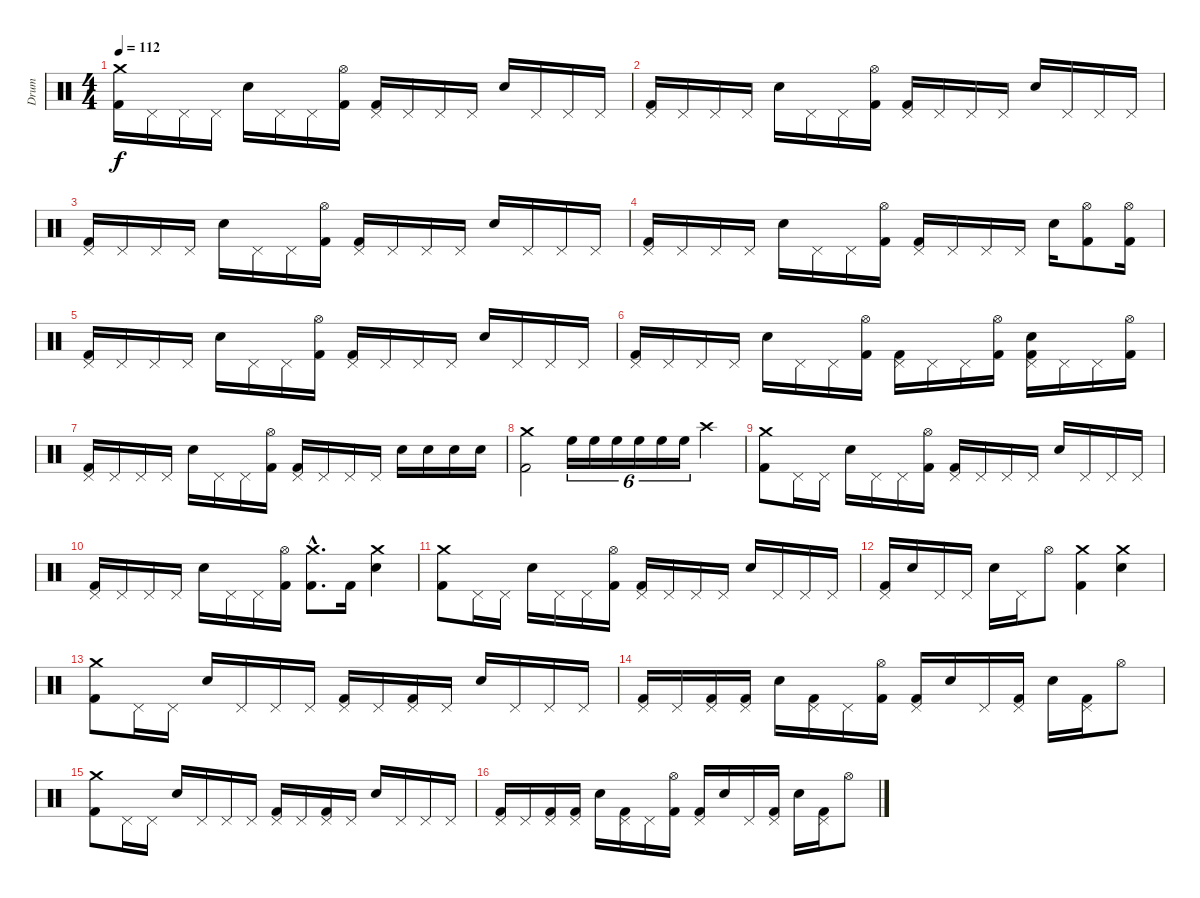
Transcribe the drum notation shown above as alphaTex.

\track ("Drum" "Drum") {instrument percussion}
\staff {score}
\articulation defaults
\ts (4 4)
\tempo 112
\clef neutral
\ks c
("Crash medium (hit)" "Kick (hit) 2").16{dy f} "Pedal Hi-Hat (hit)".16 "Pedal Hi-Hat (hit)".16 "Pedal Hi-Hat (hit)".16 "Electric Snare (hit)".16 "Pedal Hi-Hat (hit)".16 "Pedal Hi-Hat (hit)".16 ("Hi-Hat (open)" "Kick (hit) 2").16 ("Pedal Hi-Hat (hit)" "Kick (hit) 2").16 "Pedal Hi-Hat (hit)".16 "Pedal Hi-Hat (hit)".16 "Pedal Hi-Hat (hit)".16 "Electric Snare (hit)".16 "Pedal Hi-Hat (hit)".16 "Pedal Hi-Hat (hit)".16 "Pedal Hi-Hat (hit)".16 |
("Pedal Hi-Hat (hit)" "Kick (hit) 2").16 "Pedal Hi-Hat (hit)".16 "Pedal Hi-Hat (hit)".16 "Pedal Hi-Hat (hit)".16 "Electric Snare (hit)".16 "Pedal Hi-Hat (hit)".16 "Pedal Hi-Hat (hit)".16 ("Hi-Hat (open)" "Kick (hit) 2").16 ("Pedal Hi-Hat (hit)" "Kick (hit) 2").16 "Pedal Hi-Hat (hit)".16 "Pedal Hi-Hat (hit)".16 "Pedal Hi-Hat (hit)".16 "Electric Snare (hit)".16 "Pedal Hi-Hat (hit)".16 "Pedal Hi-Hat (hit)".16 "Pedal Hi-Hat (hit)".16 |
("Pedal Hi-Hat (hit)" "Kick (hit) 2").16 "Pedal Hi-Hat (hit)".16 "Pedal Hi-Hat (hit)".16 "Pedal Hi-Hat (hit)".16 "Electric Snare (hit)".16 "Pedal Hi-Hat (hit)".16 "Pedal Hi-Hat (hit)".16 ("Hi-Hat (open)" "Kick (hit) 2").16 ("Pedal Hi-Hat (hit)" "Kick (hit) 2").16 "Pedal Hi-Hat (hit)".16 "Pedal Hi-Hat (hit)".16 "Pedal Hi-Hat (hit)".16 "Electric Snare (hit)".16 "Pedal Hi-Hat (hit)".16 "Pedal Hi-Hat (hit)".16 "Pedal Hi-Hat (hit)".16 |
("Pedal Hi-Hat (hit)" "Kick (hit) 2").16 "Pedal Hi-Hat (hit)".16 "Pedal Hi-Hat (hit)".16 "Pedal Hi-Hat (hit)".16 "Electric Snare (hit)".16 "Pedal Hi-Hat (hit)".16 "Pedal Hi-Hat (hit)".16 ("Hi-Hat (open)" "Kick (hit) 2").16 ("Pedal Hi-Hat (hit)" "Kick (hit) 2").16 "Pedal Hi-Hat (hit)".16 "Pedal Hi-Hat (hit)".16 "Pedal Hi-Hat (hit)".16 "Electric Snare (hit)".16 ("Hi-Hat (open)" "Kick (hit) 2").8 ("Hi-Hat (open)" "Kick (hit) 2").16 |
("Pedal Hi-Hat (hit)" "Kick (hit) 2").16 "Pedal Hi-Hat (hit)".16 "Pedal Hi-Hat (hit)".16 "Pedal Hi-Hat (hit)".16 "Electric Snare (hit)".16 "Pedal Hi-Hat (hit)".16 "Pedal Hi-Hat (hit)".16 ("Hi-Hat (open)" "Kick (hit) 2").16 ("Pedal Hi-Hat (hit)" "Kick (hit) 2").16 "Pedal Hi-Hat (hit)".16 "Pedal Hi-Hat (hit)".16 "Pedal Hi-Hat (hit)".16 "Electric Snare (hit)".16 "Pedal Hi-Hat (hit)".16 "Pedal Hi-Hat (hit)".16 "Pedal Hi-Hat (hit)".16 |
("Pedal Hi-Hat (hit)" "Kick (hit) 2").16 "Pedal Hi-Hat (hit)".16 "Pedal Hi-Hat (hit)".16 "Pedal Hi-Hat (hit)".16 "Electric Snare (hit)".16 "Pedal Hi-Hat (hit)".16 "Pedal Hi-Hat (hit)".16 ("Hi-Hat (open)" "Kick (hit) 2").16 ("Pedal Hi-Hat (hit)" "Kick (hit) 2").16 "Pedal Hi-Hat (hit)".16 "Pedal Hi-Hat (hit)".16 ("Hi-Hat (open)" "Kick (hit) 2").16 ("Pedal Hi-Hat (hit)" "Electric Snare (hit)" "Kick (hit) 2").16 "Pedal Hi-Hat (hit)".16 "Pedal Hi-Hat (hit)".16 ("Hi-Hat (open)" "Kick (hit) 2").16 |
("Pedal Hi-Hat (hit)" "Kick (hit) 2").16 "Pedal Hi-Hat (hit)".16 "Pedal Hi-Hat (hit)".16 "Pedal Hi-Hat (hit)".16 "Electric Snare (hit)".16 "Pedal Hi-Hat (hit)".16 "Pedal Hi-Hat (hit)".16 ("Hi-Hat (open)" "Kick (hit) 2").16 ("Pedal Hi-Hat (hit)" "Kick (hit) 2").16 "Pedal Hi-Hat (hit)".16 "Pedal Hi-Hat (hit)".16 "Pedal Hi-Hat (hit)".16 "Electric Snare (hit)".16 "Electric Snare (hit)".16 "Electric Snare (hit)".16 "Electric Snare (hit)".16 |
("Crash medium (hit)" "Kick (hit) 2").2 "High Floor Tom (hit)".16{tu (6 4)} "High Floor Tom (hit)".16{tu (6 4)} "High Floor Tom (hit)".16{tu (6 4)} "High Floor Tom (hit)".16{tu (6 4)} "High Floor Tom (hit)".16{tu (6 4)} "High Floor Tom (hit)".16{tu (6 4)} "Crash high (hit)".4 |
("Crash medium (hit)" "Kick (hit) 2").8 "Pedal Hi-Hat (hit)".16 "Pedal Hi-Hat (hit)".16 "Electric Snare (hit)".16 "Pedal Hi-Hat (hit)".16 "Pedal Hi-Hat (hit)".16 ("Hi-Hat (open)" "Kick (hit) 2").16 ("Pedal Hi-Hat (hit)" "Kick (hit) 2").16 "Pedal Hi-Hat (hit)".16 "Pedal Hi-Hat (hit)".16 "Pedal Hi-Hat (hit)".16 "Electric Snare (hit)".16 "Pedal Hi-Hat (hit)".16 "Pedal Hi-Hat (hit)".16 "Pedal Hi-Hat (hit)".16 |
("Pedal Hi-Hat (hit)" "Kick (hit) 2").16 "Pedal Hi-Hat (hit)".16 "Pedal Hi-Hat (hit)".16 "Pedal Hi-Hat (hit)".16 "Electric Snare (hit)".16 "Pedal Hi-Hat (hit)".16 "Pedal Hi-Hat (hit)".16 ("Hi-Hat (open)" "Kick (hit) 2").16 ("Crash medium (hit)"{hac} "Kick (hit) 2"{hac}).8{d} "Kick (hit) 2".16 ("Crash medium (hit)" "Electric Snare (hit)").4 |
("Crash medium (hit)" "Kick (hit) 2").8 "Pedal Hi-Hat (hit)".16 "Pedal Hi-Hat (hit)".16 "Electric Snare (hit)".16 "Pedal Hi-Hat (hit)".16 "Pedal Hi-Hat (hit)".16 ("Hi-Hat (open)" "Kick (hit) 2").16 ("Pedal Hi-Hat (hit)" "Kick (hit) 2").16 "Pedal Hi-Hat (hit)".16 "Pedal Hi-Hat (hit)".16 "Pedal Hi-Hat (hit)".16 "Electric Snare (hit)".16 "Pedal Hi-Hat (hit)".16 "Pedal Hi-Hat (hit)".16 "Pedal Hi-Hat (hit)".16 |
("Pedal Hi-Hat (hit)" "Kick (hit) 2").16 "Electric Snare (hit)".16 "Pedal Hi-Hat (hit)".16 "Pedal Hi-Hat (hit)".16 "Electric Snare (hit)".16 "Pedal Hi-Hat (hit)".16 "Hi-Hat (open)".8 ("Crash medium (hit)" "Kick (hit) 2").4 ("Crash medium (hit)" "Electric Snare (hit)").4 |
("Crash medium (hit)" "Kick (hit) 2").8 "Pedal Hi-Hat (hit)".16 "Pedal Hi-Hat (hit)".16 "Electric Snare (hit)".16 "Pedal Hi-Hat (hit)".16 "Pedal Hi-Hat (hit)".16 "Pedal Hi-Hat (hit)".16 ("Pedal Hi-Hat (hit)" "Kick (hit) 2").16 "Pedal Hi-Hat (hit)".16 ("Pedal Hi-Hat (hit)" "Kick (hit) 2").16 "Pedal Hi-Hat (hit)".16 "Electric Snare (hit)".16 "Pedal Hi-Hat (hit)".16 "Pedal Hi-Hat (hit)".16 "Pedal Hi-Hat (hit)".16 |
("Pedal Hi-Hat (hit)" "Kick (hit) 2").16 "Pedal Hi-Hat (hit)".16 ("Pedal Hi-Hat (hit)" "Kick (hit) 2").16 ("Pedal Hi-Hat (hit)" "Kick (hit) 2").16 "Electric Snare (hit)".16 ("Pedal Hi-Hat (hit)" "Kick (hit) 2").16 "Pedal Hi-Hat (hit)".16 ("Hi-Hat (open)" "Kick (hit) 2").16 ("Pedal Hi-Hat (hit)" "Kick (hit) 2").16 "Electric Snare (hit)".16 "Pedal Hi-Hat (hit)".16 ("Pedal Hi-Hat (hit)" "Kick (hit) 2").16 "Electric Snare (hit)".16 ("Pedal Hi-Hat (hit)" "Kick (hit) 2").16 "Hi-Hat (open)".8 |
("Crash medium (hit)" "Kick (hit) 2").8 "Pedal Hi-Hat (hit)".16 "Pedal Hi-Hat (hit)".16 "Electric Snare (hit)".16 "Pedal Hi-Hat (hit)".16 "Pedal Hi-Hat (hit)".16 "Pedal Hi-Hat (hit)".16 ("Pedal Hi-Hat (hit)" "Kick (hit) 2").16 "Pedal Hi-Hat (hit)".16 ("Pedal Hi-Hat (hit)" "Kick (hit) 2").16 "Pedal Hi-Hat (hit)".16 "Electric Snare (hit)".16 "Pedal Hi-Hat (hit)".16 "Pedal Hi-Hat (hit)".16 "Pedal Hi-Hat (hit)".16 |
("Pedal Hi-Hat (hit)" "Kick (hit) 2").16 "Pedal Hi-Hat (hit)".16 ("Pedal Hi-Hat (hit)" "Kick (hit) 2").16 ("Pedal Hi-Hat (hit)" "Kick (hit) 2").16 "Electric Snare (hit)".16 ("Pedal Hi-Hat (hit)" "Kick (hit) 2").16 "Pedal Hi-Hat (hit)".16 ("Hi-Hat (open)" "Kick (hit) 2").16 ("Pedal Hi-Hat (hit)" "Kick (hit) 2").16 "Electric Snare (hit)".16 "Pedal Hi-Hat (hit)".16 ("Pedal Hi-Hat (hit)" "Kick (hit) 2").16 "Electric Snare (hit)".16 ("Pedal Hi-Hat (hit)" "Kick (hit) 2").16 "Hi-Hat (open)".8
